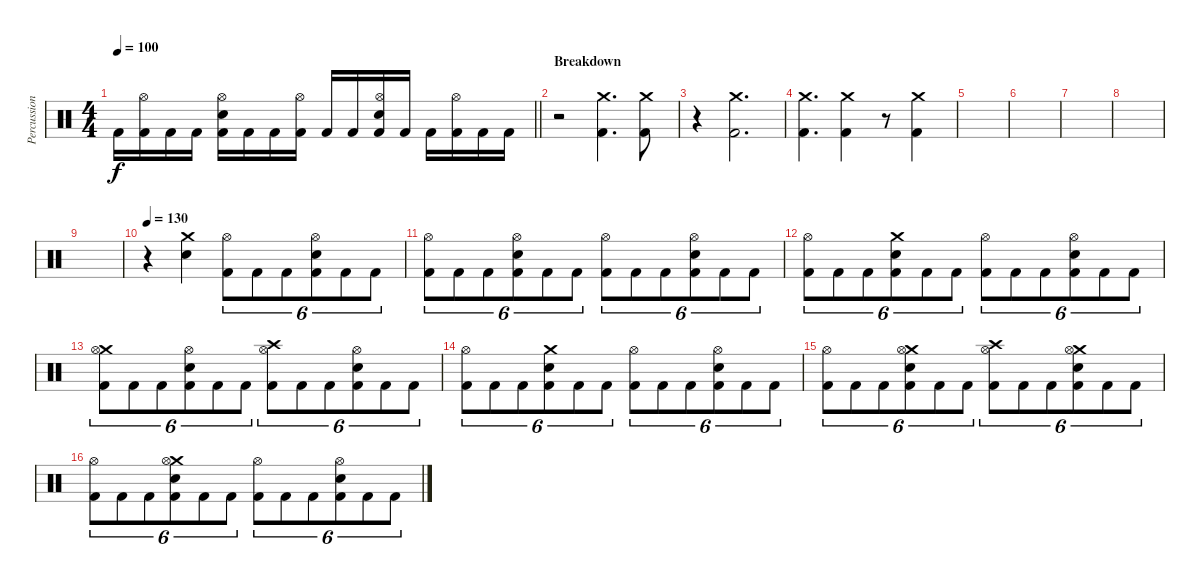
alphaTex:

\track ("Percussion" "Percussion") {instrument percussion}
\staff {score}
\articulation defaults
\ts (4 4)
\tempo 100
\clef neutral
\barLineRight lightlight
\ks c "Kick (hit) 2".16{dy f}
("Hi-Hat (open)" "Kick (hit) 2").16 "Kick (hit) 2".16 "Kick (hit) 2".16 ("Hi-Hat (open)" "Snare (hit) 2" "Kick (hit) 2").16 "Kick (hit) 2".16 "Kick (hit) 2".16 ("Hi-Hat (open)" "Kick (hit) 2").16 "Kick (hit) 2".16 "Kick (hit) 2".16 ("Hi-Hat (open)" "Snare (hit) 2" "Kick (hit) 2").16 "Kick (hit) 2".16 "Kick (hit) 2".16 ("Hi-Hat (open)" "Kick (hit) 2").16 "Kick (hit) 2".16 "Kick (hit) 2".16 |
\section ("" "Breakdown")
r.2 ("Crash medium (hit)" "Kick (hit) 2").4{d} ("Crash medium (hit)" "Kick (hit) 2").8 |
r.4 ("Crash medium (hit)" "Kick (hit) 2").2{d} |
("Crash medium (hit)" "Kick (hit) 2").4{d} ("Crash medium (hit)" "Kick (hit) 2").4 r.8 ("Crash medium (hit)" "Kick (hit) 2").4 |
|
|
|
|
|
\tempo 130
r.4 ("Crash medium (hit)" "Snare (hit) 2").4 ("Hi-Hat (open)" "Kick (hit) 2").8{tu (6 4)} "Kick (hit) 2".8{tu (6 4)} "Kick (hit) 2".8{tu (6 4)} ("Hi-Hat (open)" "Snare (hit) 2" "Kick (hit) 2").8{tu (6 4)} "Kick (hit) 2".8{tu (6 4)} "Kick (hit) 2".8{tu (6 4)} |
("Hi-Hat (open)" "Kick (hit) 2").8{tu (6 4)} "Kick (hit) 2".8{tu (6 4)} "Kick (hit) 2".8{tu (6 4)} ("Hi-Hat (open)" "Snare (hit) 2" "Kick (hit) 2").8{tu (6 4)} "Kick (hit) 2".8{tu (6 4)} "Kick (hit) 2".8{tu (6 4)} ("Hi-Hat (open)" "Kick (hit) 2").8{tu (6 4)} "Kick (hit) 2".8{tu (6 4)} "Kick (hit) 2".8{tu (6 4)} ("Hi-Hat (open)" "Snare (hit) 2" "Kick (hit) 2").8{tu (6 4)} "Kick (hit) 2".8{tu (6 4)} "Kick (hit) 2".8{tu (6 4)} |
("Hi-Hat (open)" "Kick (hit) 2").8{tu (6 4)} "Kick (hit) 2".8{tu (6 4)} "Kick (hit) 2".8{tu (6 4)} ("Crash medium (hit)" "Snare (hit) 2" "Kick (hit) 2").8{tu (6 4)} "Kick (hit) 2".8{tu (6 4)} "Kick (hit) 2".8{tu (6 4)} ("Hi-Hat (open)" "Kick (hit) 2").8{tu (6 4)} "Kick (hit) 2".8{tu (6 4)} "Kick (hit) 2".8{tu (6 4)} ("Hi-Hat (open)" "Snare (hit) 2" "Kick (hit) 2").8{tu (6 4)} "Kick (hit) 2".8{tu (6 4)} "Kick (hit) 2".8{tu (6 4)} |
("Crash medium (hit)" "Hi-Hat (open)" "Kick (hit) 2").8{tu (6 4)} "Kick (hit) 2".8{tu (6 4)} "Kick (hit) 2".8{tu (6 4)} ("Hi-Hat (open)" "Snare (hit) 2" "Kick (hit) 2").8{tu (6 4)} "Kick (hit) 2".8{tu (6 4)} "Kick (hit) 2".8{tu (6 4)} ("Crash high (hit)" "Hi-Hat (open)" "Kick (hit) 2").8{tu (6 4)} "Kick (hit) 2".8{tu (6 4)} "Kick (hit) 2".8{tu (6 4)} ("Hi-Hat (open)" "Snare (hit) 2" "Kick (hit) 2").8{tu (6 4)} "Kick (hit) 2".8{tu (6 4)} "Kick (hit) 2".8{tu (6 4)} |
("Hi-Hat (open)" "Kick (hit) 2").8{tu (6 4)} "Kick (hit) 2".8{tu (6 4)} "Kick (hit) 2".8{tu (6 4)} ("Crash medium (hit)" "Snare (hit) 2" "Kick (hit) 2").8{tu (6 4)} "Kick (hit) 2".8{tu (6 4)} "Kick (hit) 2".8{tu (6 4)} ("Hi-Hat (open)" "Kick (hit) 2").8{tu (6 4)} "Kick (hit) 2".8{tu (6 4)} "Kick (hit) 2".8{tu (6 4)} ("Hi-Hat (open)" "Snare (hit) 2" "Kick (hit) 2").8{tu (6 4)} "Kick (hit) 2".8{tu (6 4)} "Kick (hit) 2".8{tu (6 4)} |
("Hi-Hat (open)" "Kick (hit) 2").8{tu (6 4)} "Kick (hit) 2".8{tu (6 4)} "Kick (hit) 2".8{tu (6 4)} ("Crash medium (hit)" "Hi-Hat (open)" "Snare (hit) 2" "Kick (hit) 2").8{tu (6 4)} "Kick (hit) 2".8{tu (6 4)} "Kick (hit) 2".8{tu (6 4)} ("Crash high (hit)" "Hi-Hat (open)" "Kick (hit) 2").8{tu (6 4)} "Kick (hit) 2".8{tu (6 4)} "Kick (hit) 2".8{tu (6 4)} ("Crash medium (hit)" "Hi-Hat (open)" "Snare (hit) 2" "Kick (hit) 2").8{tu (6 4)} "Kick (hit) 2".8{tu (6 4)} "Kick (hit) 2".8{tu (6 4)} |
("Hi-Hat (open)" "Kick (hit) 2").8{tu (6 4)} "Kick (hit) 2".8{tu (6 4)} "Kick (hit) 2".8{tu (6 4)} ("Crash medium (hit)" "Hi-Hat (open)" "Snare (hit) 2" "Kick (hit) 2").8{tu (6 4)} "Kick (hit) 2".8{tu (6 4)} "Kick (hit) 2".8{tu (6 4)} ("Hi-Hat (open)" "Kick (hit) 2").8{tu (6 4)} "Kick (hit) 2".8{tu (6 4)} "Kick (hit) 2".8{tu (6 4)} ("Hi-Hat (open)" "Snare (hit) 2" "Kick (hit) 2").8{tu (6 4)} "Kick (hit) 2".8{tu (6 4)} "Kick (hit) 2".8{tu (6 4)}
